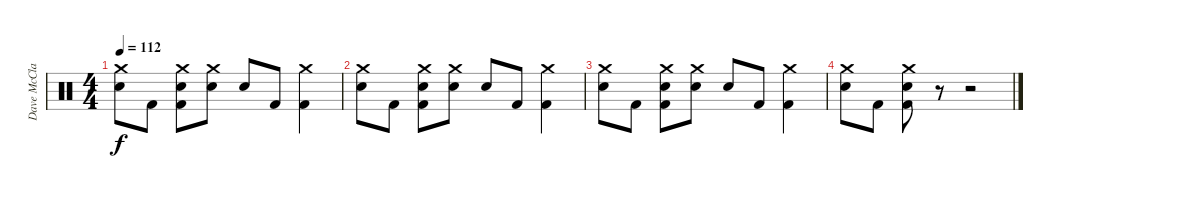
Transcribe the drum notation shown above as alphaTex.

\track ("Dave McClain" "Dave McCla") {instrument percussion}
\staff {score}
\articulation defaults
\ts (4 4)
\tempo 112
\clef neutral
\ks c
("Crash medium (hit)" "Electric Snare (hit)").8{dy f} "Kick (hit) 2".8 ("Crash medium (hit)" "Electric Snare (hit)" "Kick (hit) 2").8 ("Crash medium (hit)" "Electric Snare (hit)").8 "Electric Snare (hit)".8 "Kick (hit) 2".8 ("Crash medium (hit)" "Kick (hit) 2").4 |
("Crash medium (hit)" "Electric Snare (hit)").8 "Kick (hit) 2".8 ("Crash medium (hit)" "Electric Snare (hit)" "Kick (hit) 2").8 ("Crash medium (hit)" "Electric Snare (hit)").8 "Electric Snare (hit)".8 "Kick (hit) 2".8 ("Crash medium (hit)" "Kick (hit) 2").4 |
("Crash medium (hit)" "Electric Snare (hit)").8 "Kick (hit) 2".8 ("Crash medium (hit)" "Electric Snare (hit)" "Kick (hit) 2").8 ("Crash medium (hit)" "Electric Snare (hit)").8 "Electric Snare (hit)".8 "Kick (hit) 2".8 ("Crash medium (hit)" "Kick (hit) 2").4 |
("Crash medium (hit)" "Electric Snare (hit)").8 "Kick (hit) 2".8 ("Crash medium (hit)" "Electric Snare (hit)" "Kick (hit) 2").8 r.8 r.2
